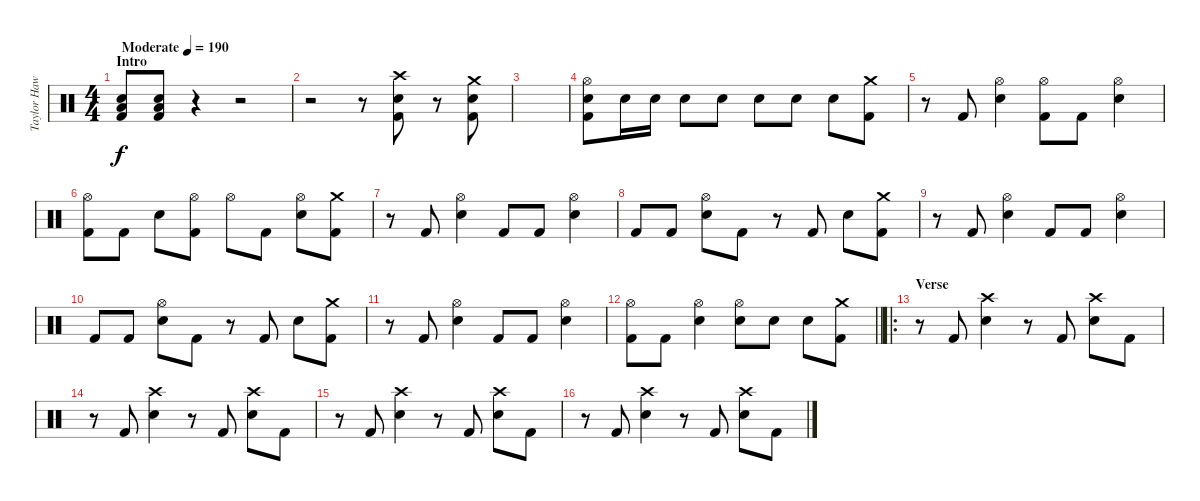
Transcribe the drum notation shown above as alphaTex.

\track ("Taylor Hawkins (Drums)" "Taylor Haw") {instrument percussion}
\staff {score}
\articulation defaults
\ts (4 4)
\section ("" "Intro")
\tempo (190 "Moderate")
\clef neutral
\ks c
("Snare (hit) 2" "Low Floor Tom (hit)" "Kick (hit) 2").8{dy f} ("Snare (hit) 2" "Low Floor Tom (hit)" "Kick (hit) 2").8 r.4 r.2 |
r.2 r.8 ("Crash high (hit)" "Snare (hit) 2" "Kick (hit) 2").8 r.8 ("Crash medium (hit)" "Snare (hit) 2" "Kick (hit) 2").8 |
|
("Hi-Hat (open)" "Snare (hit) 2" "Kick (hit) 2").8 "Snare (hit) 2".16 "Snare (hit) 2".16 "Snare (hit) 2".8 "Snare (hit) 2".8 "Snare (hit) 2".8 "Snare (hit) 2".8 "Snare (hit) 2".8 ("Crash medium (hit)" "Kick (hit) 2").8 |
r.8 "Kick (hit) 2".8 ("Hi-Hat (open)" "Snare (hit) 2").4 ("Hi-Hat (open)" "Kick (hit) 2").8 "Kick (hit) 2".8 ("Hi-Hat (open)" "Snare (hit) 2").4 |
("Hi-Hat (open)" "Kick (hit) 2").8 "Kick (hit) 2".8 "Snare (hit) 2".8 ("Hi-Hat (open)" "Kick (hit) 2").8 "Hi-Hat (open)".8 "Kick (hit) 2".8 ("Hi-Hat (open)" "Snare (hit) 2").8 ("Crash medium (hit)" "Kick (hit) 2").8 |
r.8 "Kick (hit) 2".8 ("Hi-Hat (open)" "Snare (hit) 2").4 "Kick (hit) 2".8 "Kick (hit) 2".8 ("Hi-Hat (open)" "Snare (hit) 2").4 |
"Kick (hit) 2".8 "Kick (hit) 2".8 ("Hi-Hat (open)" "Snare (hit) 2").8 "Kick (hit) 2".8 r.8 "Kick (hit) 2".8 "Snare (hit) 2".8 ("Crash medium (hit)" "Kick (hit) 2").8 |
r.8 "Kick (hit) 2".8 ("Hi-Hat (open)" "Snare (hit) 2").4 "Kick (hit) 2".8 "Kick (hit) 2".8 ("Hi-Hat (open)" "Snare (hit) 2").4 |
"Kick (hit) 2".8 "Kick (hit) 2".8 ("Hi-Hat (open)" "Snare (hit) 2").8 "Kick (hit) 2".8 r.8 "Kick (hit) 2".8 "Snare (hit) 2".8 ("Crash medium (hit)" "Kick (hit) 2").8 |
r.8 "Kick (hit) 2".8 ("Hi-Hat (open)" "Snare (hit) 2").4 "Kick (hit) 2".8 "Kick (hit) 2".8 ("Hi-Hat (open)" "Snare (hit) 2").4 |
\barLineRight lightlight
("Hi-Hat (open)" "Kick (hit) 2").8 "Kick (hit) 2".8 ("Hi-Hat (open)" "Snare (hit) 2").4 ("Hi-Hat (open)" "Snare (hit) 2").8 "Snare (hit) 2".8 "Snare (hit) 2".8 ("Crash medium (hit)" "Kick (hit) 2").8 |
\ro
\section ("" "Verse")
r.8 "Kick (hit) 2".8 ("Crash high (hit)" "Snare (hit) 2").4 r.8 "Kick (hit) 2".8 ("Crash high (hit)" "Snare (hit) 2").8 "Kick (hit) 2".8 |
r.8 "Kick (hit) 2".8 ("Crash high (hit)" "Snare (hit) 2").4 r.8 "Kick (hit) 2".8 ("Crash high (hit)" "Snare (hit) 2").8 "Kick (hit) 2".8 |
r.8 "Kick (hit) 2".8 ("Crash high (hit)" "Snare (hit) 2").4 r.8 "Kick (hit) 2".8 ("Crash high (hit)" "Snare (hit) 2").8 "Kick (hit) 2".8 |
r.8 "Kick (hit) 2".8 ("Crash high (hit)" "Snare (hit) 2").4 r.8 "Kick (hit) 2".8 ("Crash high (hit)" "Snare (hit) 2").8 "Kick (hit) 2".8
